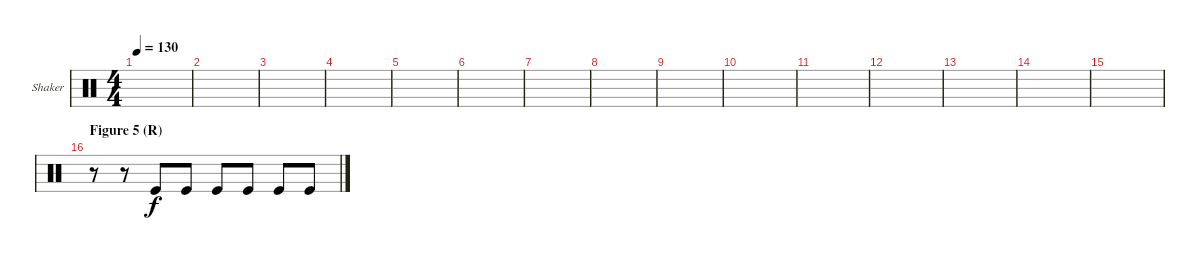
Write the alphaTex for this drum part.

\defaultSystemsLayout 4
\bracketExtendMode groupsimilarinstruments
\firstSystemTrackNameOrientation horizontal
\otherSystemsTrackNameOrientation horizontal
\track ("Shaker" "Shaker") {instrument percussion}
\staff {score}
\articulation defaults
\ts (4 4)
\tempo 130
\clef neutral
\scale
0.333333
\ks aminor
|
\scale
0.333333 |
\scale
0.333333 |
\scale
0.333333 |
\scale
0.333333 |
\scale
0.333333 |
\scale
0.333333 |
\scale
0.333333 |
\scale
0.333333 |
\scale
0.333333 |
\scale
0.333333 |
\scale
0.333333 |
\scale
0.333333 |
\scale
0.333333 |
\scale
0.333333 |
\section ("" "Figure 5 (R)")
\scale
0.333333 r.8 r.8 "Kick (hit)".8 "Kick (hit)".8 "Kick (hit)".8 "Kick (hit)".8 "Kick (hit)".8 "Kick (hit)".8
